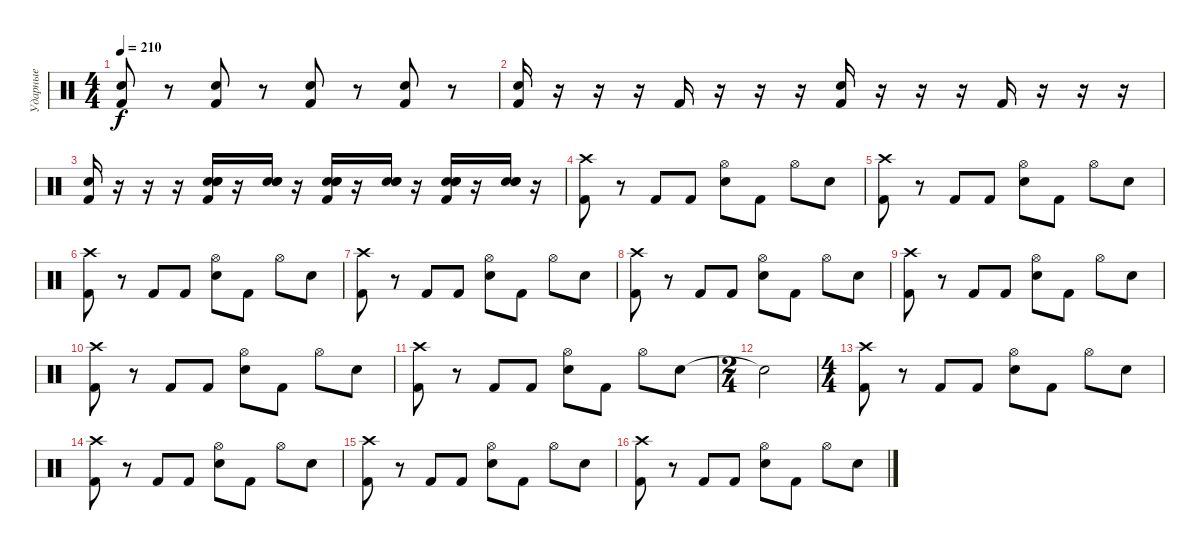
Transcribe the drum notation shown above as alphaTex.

\track ("Ударные" "Ударные") {instrument percussion}
\staff {score}
\articulation defaults
\ts (4 4)
\tempo 210
\clef neutral
\ks c
("Snare (hit) 2" "Kick (hit) 2").8{dy f} r.8 ("Snare (hit) 2" "Kick (hit) 2").8 r.8 ("Snare (hit) 2" "Kick (hit) 2").8 r.8 ("Snare (hit) 2" "Kick (hit) 2").8 r.8 |
("Snare (hit) 2" "Kick (hit) 2").16 r.16 r.16 r.16 "Kick (hit) 2".16 r.16 r.16 r.16 ("Snare (hit) 2" "Kick (hit) 2").16 r.16 r.16 r.16 "Kick (hit) 2".16 r.16 r.16 r.16 |
("Snare (hit) 2" "Kick (hit) 2").16 r.16 r.16 r.16 ("Snare (hit) 2" "Snare (hit) 2" "Snare (hit) 2" "Kick (hit) 2").16 r.16 ("Snare (hit) 2" "Snare (hit) 2" "Snare (hit) 2").16 r.16 ("Snare (hit) 2" "Snare (hit) 2" "Snare (hit) 2" "Kick (hit) 2").16 r.16 ("Snare (hit) 2" "Snare (hit) 2" "Snare (hit) 2").16 r.16 ("Snare (hit) 2" "Snare (hit) 2" "Snare (hit) 2" "Kick (hit) 2").16 r.16 ("Snare (hit) 2" "Snare (hit) 2" "Snare (hit) 2").16 r.16 |
("Crash high (hit)" "Kick (hit) 2").8 r.8 "Kick (hit) 2".8 "Kick (hit) 2".8 ("Hi-Hat (open)" "Snare (hit) 2").8 "Kick (hit) 2".8 "Hi-Hat (open)".8 "Snare (hit) 2".8 |
("Crash high (hit)" "Kick (hit) 2").8 r.8 "Kick (hit) 2".8 "Kick (hit) 2".8 ("Hi-Hat (open)" "Snare (hit) 2").8 "Kick (hit) 2".8 "Hi-Hat (open)".8 "Snare (hit) 2".8 |
("Crash high (hit)" "Kick (hit) 2").8 r.8 "Kick (hit) 2".8 "Kick (hit) 2".8 ("Hi-Hat (open)" "Snare (hit) 2").8 "Kick (hit) 2".8 "Hi-Hat (open)".8 "Snare (hit) 2".8 |
("Crash high (hit)" "Kick (hit) 2").8 r.8 "Kick (hit) 2".8 "Kick (hit) 2".8 ("Hi-Hat (open)" "Snare (hit) 2").8 "Kick (hit) 2".8 "Hi-Hat (open)".8 "Snare (hit) 2".8 |
("Crash high (hit)" "Kick (hit) 2").8 r.8 "Kick (hit) 2".8 "Kick (hit) 2".8 ("Hi-Hat (open)" "Snare (hit) 2").8 "Kick (hit) 2".8 "Hi-Hat (open)".8 "Snare (hit) 2".8 |
("Crash high (hit)" "Kick (hit) 2").8 r.8 "Kick (hit) 2".8 "Kick (hit) 2".8 ("Hi-Hat (open)" "Snare (hit) 2").8 "Kick (hit) 2".8 "Hi-Hat (open)".8 "Snare (hit) 2".8 |
("Crash high (hit)" "Kick (hit) 2").8 r.8 "Kick (hit) 2".8 "Kick (hit) 2".8 ("Hi-Hat (open)" "Snare (hit) 2").8 "Kick (hit) 2".8 "Hi-Hat (open)".8 "Snare (hit) 2".8 |
("Crash high (hit)" "Kick (hit) 2").8 r.8 "Kick (hit) 2".8 "Kick (hit) 2".8 ("Hi-Hat (open)" "Snare (hit) 2").8 "Kick (hit) 2".8 "Hi-Hat (open)".8 "Snare (hit) 2".8 |
\ts (2 4)
"Snare (hit)"{t}.2 |
\ts (4 4)
("Crash high (hit)" "Kick (hit) 2").8 r.8 "Kick (hit) 2".8 "Kick (hit) 2".8 ("Hi-Hat (open)" "Snare (hit) 2").8 "Kick (hit) 2".8 "Hi-Hat (open)".8 "Snare (hit) 2".8 |
("Crash high (hit)" "Kick (hit) 2").8 r.8 "Kick (hit) 2".8 "Kick (hit) 2".8 ("Hi-Hat (open)" "Snare (hit) 2").8 "Kick (hit) 2".8 "Hi-Hat (open)".8 "Snare (hit) 2".8 |
("Crash high (hit)" "Kick (hit) 2").8 r.8 "Kick (hit) 2".8 "Kick (hit) 2".8 ("Hi-Hat (open)" "Snare (hit) 2").8 "Kick (hit) 2".8 "Hi-Hat (open)".8 "Snare (hit) 2".8 |
("Crash high (hit)" "Kick (hit) 2").8 r.8 "Kick (hit) 2".8 "Kick (hit) 2".8 ("Hi-Hat (open)" "Snare (hit) 2").8 "Kick (hit) 2".8 "Hi-Hat (open)".8 "Snare (hit) 2".8
